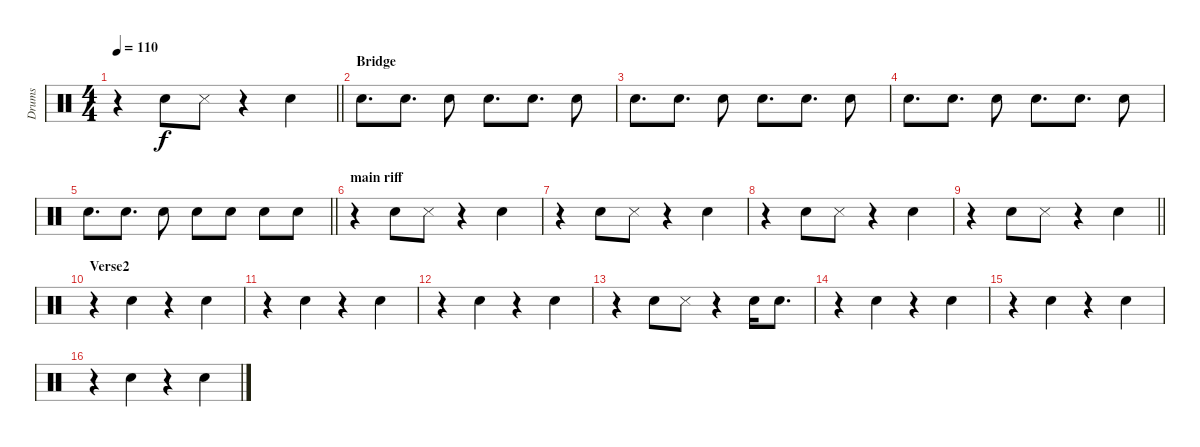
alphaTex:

\track ("Drums" "Drums") {instrument percussion}
\staff {score}
\articulation defaults
\ts (4 4)
\tempo 110
\clef neutral
\barLineRight lightlight
\ks c
r.4{dy f} "Snare (hit) 2".8 "Snare (side stick) 3".8 r.4 "Snare (hit) 2".4 |
\section ("" "Bridge")
"Snare (hit) 2".8{d} "Snare (hit) 2".8{d} "Snare (hit) 2".8 "Snare (hit) 2".8{d} "Snare (hit) 2".8{d} "Snare (hit) 2".8 |
"Snare (hit) 2".8{d} "Snare (hit) 2".8{d} "Snare (hit) 2".8 "Snare (hit) 2".8{d} "Snare (hit) 2".8{d} "Snare (hit) 2".8 |
"Snare (hit) 2".8{d} "Snare (hit) 2".8{d} "Snare (hit) 2".8 "Snare (hit) 2".8{d} "Snare (hit) 2".8{d} "Snare (hit) 2".8 |
\barLineRight lightlight "Snare (hit) 2".8{d} "Snare (hit) 2".8{d} "Snare (hit) 2".8 "Snare (hit) 2".8 "Snare (hit) 2".8 "Snare (hit) 2".8 "Snare (hit) 2".8
|
\section ("" "main riff")
r.4 "Snare (hit) 2".8 "Snare (side stick) 3".8 r.4 "Snare (hit) 2".4 |
r.4 "Snare (hit) 2".8 "Snare (side stick) 3".8 r.4 "Snare (hit) 2".4 |
r.4 "Snare (hit) 2".8 "Snare (side stick) 3".8 r.4 "Snare (hit) 2".4 |
\barLineRight lightlight
r.4 "Snare (hit) 2".8 "Snare (side stick) 3".8 r.4 "Snare (hit) 2".4 |
\section ("" "Verse2")
r.4 "Snare (hit) 2".4 r.4 "Snare (hit) 2".4 |
r.4 "Snare (hit) 2".4 r.4 "Snare (hit) 2".4 |
r.4 "Snare (hit) 2".4 r.4 "Snare (hit) 2".4 |
r.4 "Snare (hit) 2".8 "Snare (side stick) 3".8 r.4 "Snare (hit) 2".16 "Snare (hit) 2".8{d} |
r.4 "Snare (hit) 2".4 r.4 "Snare (hit) 2".4 |
r.4 "Snare (hit) 2".4 r.4 "Snare (hit) 2".4 |
r.4 "Snare (hit) 2".4 r.4 "Snare (hit) 2".4
